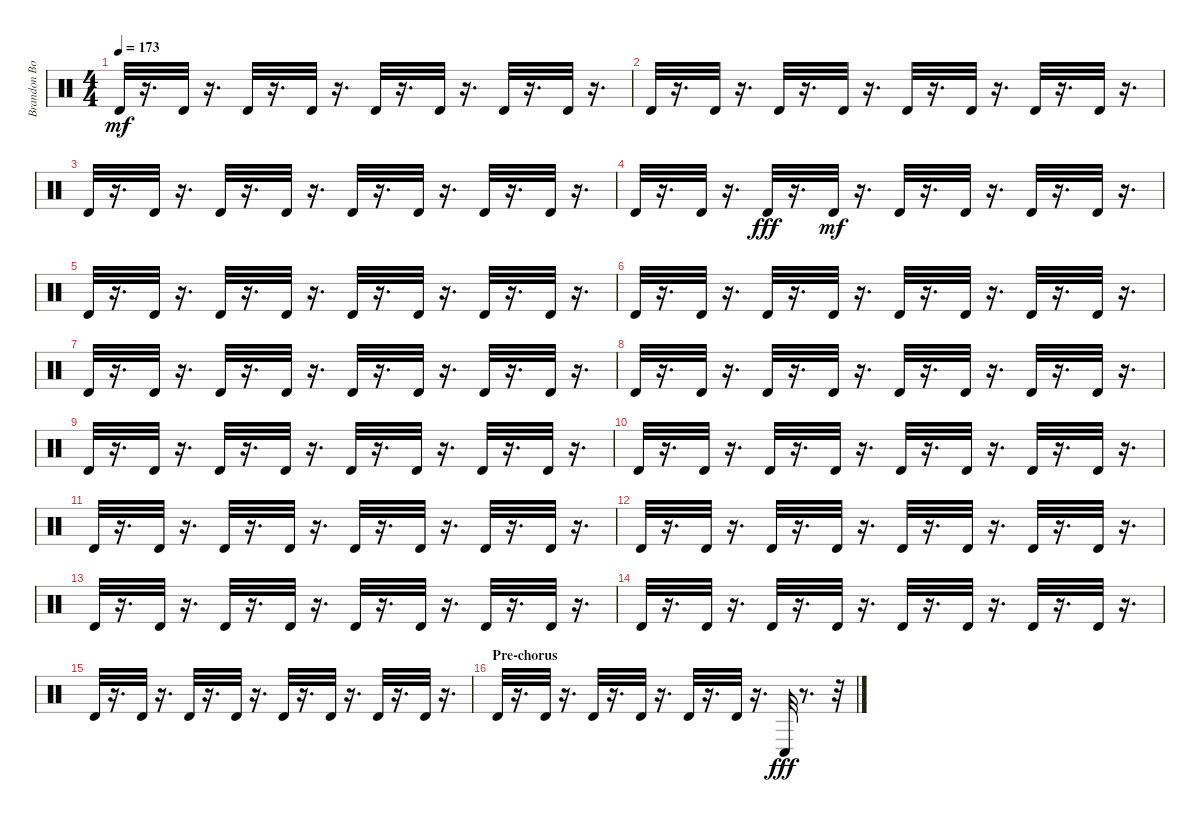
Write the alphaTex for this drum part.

\track ("Brandon Boyd-Percussion" "Brandon Bo") {instrument percussion}
\staff {score}
\articulation defaults
\ts (4 4)
\tempo 173
\clef neutral
\ks c "Timbale high (hit)".32{dy mf}
r.16{d} "Timbale high (hit)".32 r.16{d} "Timbale high (hit)".32 r.16{d} "Timbale high (hit)".32 r.16{d} "Timbale high (hit)".32 r.16{d} "Timbale high (hit)".32 r.16{d} "Timbale high (hit)".32 r.16{d} "Timbale high (hit)".32 r.16{d} |
"Timbale high (hit)".32 r.16{d} "Timbale high (hit)".32 r.16{d} "Timbale high (hit)".32 r.16{d} "Timbale high (hit)".32 r.16{d} "Timbale high (hit)".32 r.16{d} "Timbale high (hit)".32 r.16{d} "Timbale high (hit)".32 r.16{d} "Timbale high (hit)".32 r.16{d} |
"Timbale high (hit)".32 r.16{d} "Timbale high (hit)".32 r.16{d} "Timbale high (hit)".32 r.16{d} "Timbale high (hit)".32 r.16{d} "Timbale high (hit)".32 r.16{d} "Timbale high (hit)".32 r.16{d} "Timbale high (hit)".32 r.16{d} "Timbale high (hit)".32 r.16{d} |
"Timbale high (hit)".32 r.16{d} "Timbale high (hit)".32 r.16{d} "Timbale high (hit)".32{dy fff} r.16{d} "Timbale high (hit)".32{dy mf} r.16{d} "Timbale high (hit)".32 r.16{d} "Timbale high (hit)".32 r.16{d} "Timbale high (hit)".32 r.16{d} "Timbale high (hit)".32 r.16{d} |
"Timbale high (hit)".32 r.16{d} "Timbale high (hit)".32 r.16{d} "Timbale high (hit)".32 r.16{d} "Timbale high (hit)".32 r.16{d} "Timbale high (hit)".32 r.16{d} "Timbale high (hit)".32 r.16{d} "Timbale high (hit)".32 r.16{d} "Timbale high (hit)".32 r.16{d} |
"Timbale high (hit)".32 r.16{d} "Timbale high (hit)".32 r.16{d} "Timbale high (hit)".32 r.16{d} "Timbale high (hit)".32 r.16{d} "Timbale high (hit)".32 r.16{d} "Timbale high (hit)".32 r.16{d} "Timbale high (hit)".32 r.16{d} "Timbale high (hit)".32 r.16{d} |
"Timbale high (hit)".32 r.16{d} "Timbale high (hit)".32 r.16{d} "Timbale high (hit)".32 r.16{d} "Timbale high (hit)".32 r.16{d} "Timbale high (hit)".32 r.16{d} "Timbale high (hit)".32 r.16{d} "Timbale high (hit)".32 r.16{d} "Timbale high (hit)".32 r.16{d} |
"Timbale high (hit)".32 r.16{d} "Timbale high (hit)".32 r.16{d} "Timbale high (hit)".32 r.16{d} "Timbale high (hit)".32 r.16{d} "Timbale high (hit)".32 r.16{d} "Timbale high (hit)".32 r.16{d} "Timbale high (hit)".32 r.16{d} "Timbale high (hit)".32 r.16{d} |
"Timbale high (hit)".32 r.16{d} "Timbale high (hit)".32 r.16{d} "Timbale high (hit)".32 r.16{d} "Timbale high (hit)".32 r.16{d} "Timbale high (hit)".32 r.16{d} "Timbale high (hit)".32 r.16{d} "Timbale high (hit)".32 r.16{d} "Timbale high (hit)".32 r.16{d} |
"Timbale high (hit)".32 r.16{d} "Timbale high (hit)".32 r.16{d} "Timbale high (hit)".32 r.16{d} "Timbale high (hit)".32 r.16{d} "Timbale high (hit)".32 r.16{d} "Timbale high (hit)".32 r.16{d} "Timbale high (hit)".32 r.16{d} "Timbale high (hit)".32 r.16{d} |
"Timbale high (hit)".32 r.16{d} "Timbale high (hit)".32 r.16{d} "Timbale high (hit)".32 r.16{d} "Timbale high (hit)".32 r.16{d} "Timbale high (hit)".32 r.16{d} "Timbale high (hit)".32 r.16{d} "Timbale high (hit)".32 r.16{d} "Timbale high (hit)".32 r.16{d} |
"Timbale high (hit)".32 r.16{d} "Timbale high (hit)".32 r.16{d} "Timbale high (hit)".32 r.16{d} "Timbale high (hit)".32 r.16{d} "Timbale high (hit)".32 r.16{d} "Timbale high (hit)".32 r.16{d} "Timbale high (hit)".32 r.16{d} "Timbale high (hit)".32 r.16{d} |
"Timbale high (hit)".32 r.16{d} "Timbale high (hit)".32 r.16{d} "Timbale high (hit)".32 r.16{d} "Timbale high (hit)".32 r.16{d} "Timbale high (hit)".32 r.16{d} "Timbale high (hit)".32 r.16{d} "Timbale high (hit)".32 r.16{d} "Timbale high (hit)".32 r.16{d} |
"Timbale high (hit)".32 r.16{d} "Timbale high (hit)".32 r.16{d} "Timbale high (hit)".32 r.16{d} "Timbale high (hit)".32 r.16{d} "Timbale high (hit)".32 r.16{d} "Timbale high (hit)".32 r.16{d} "Timbale high (hit)".32 r.16{d} "Timbale high (hit)".32 r.16{d} |
"Timbale high (hit)".32 r.16{d} "Timbale high (hit)".32 r.16{d} "Timbale high (hit)".32 r.16{d} "Timbale high (hit)".32 r.16{d} "Timbale high (hit)".32 r.16{d} "Timbale high (hit)".32 r.16{d} "Timbale high (hit)".32 r.16{d} "Timbale high (hit)".32 r.16{d} |
\section ("" "Pre-chorus")
"Timbale high (hit)".32 r.16{d} "Timbale high (hit)".32 r.16{d} "Timbale high (hit)".32 r.16{d} "Timbale high (hit)".32 r.16{d} "Timbale high (hit)".32 r.16{d} "Timbale high (hit)".32 r.16{d} "Conga low (hit)".32{dy fff} r.8{d} r.32
